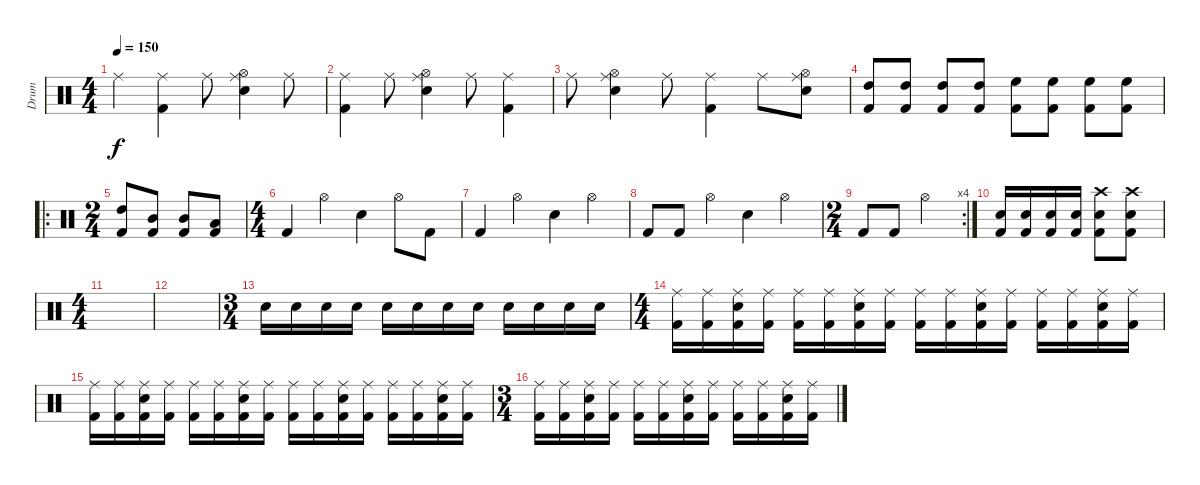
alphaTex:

\track ("Drum" "Drum") {instrument percussion}
\staff {score}
\articulation defaults
\ts (4 4)
\tempo 150
\clef neutral
\ks c "Ride (middle)".4{dy f}
("Kick (hit) 2" "Ride (middle)").4 "Ride (middle)".8 ("Hi-Hat (open)" "Electric Snare (hit)" "Ride (middle)").4 "Ride (middle)".8 |
("Kick (hit) 2" "Ride (middle)").4 "Ride (middle)".8 ("Hi-Hat (open)" "Electric Snare (hit)" "Ride (middle)").4 "Ride (middle)".8 ("Kick (hit) 2" "Ride (middle)").4 |
"Ride (middle)".8 ("Hi-Hat (open)" "Electric Snare (hit)" "Ride (middle)").4 "Ride (middle)".8 ("Kick (hit) 2" "Ride (middle)").4 "Ride (middle)".8 ("Hi-Hat (open)" "Electric Snare (hit)" "Ride (middle)").8 |
("Kick (hit) 2" "High Tom (hit)").8 ("Kick (hit) 2" "High Tom (hit)").8 ("Kick (hit) 2" "High Tom (hit)").8 ("Kick (hit) 2" "High Tom (hit)").8 ("Kick (hit) 2" "High Floor Tom (hit)").8 ("Kick (hit) 2" "High Floor Tom (hit)").8 ("Kick (hit) 2" "High Floor Tom (hit)").8 ("Kick (hit) 2" "High Floor Tom (hit)").8 |
\ro
\ts (2 4)
("Kick (hit) 2" "High Tom (hit)").8 ("Kick (hit) 2" "Mid Tom (hit)").8 ("Kick (hit) 2" "Mid Tom (hit)").8 ("Kick (hit) 2" "Low Tom (hit)").8 |
\ts (4 4)
"Kick (hit) 2".4 "Hi-Hat (open)".4 "Electric Snare (hit)".4 "Hi-Hat (open)".8 "Kick (hit) 2".8 |
"Kick (hit) 2".4 "Hi-Hat (open)".4 "Electric Snare (hit)".4 "Hi-Hat (open)".4 |
"Kick (hit) 2".8 "Kick (hit) 2".8 "Hi-Hat (open)".4 "Electric Snare (hit)".4 "Hi-Hat (open)".4 |
\rc 4
\ts (2 4)
"Kick (hit) 2".8 "Kick (hit) 2".8 "Hi-Hat (open)".4 |
("Kick (hit) 2" "Electric Snare (hit)").16 ("Kick (hit) 2" "Electric Snare (hit)").16 ("Kick (hit) 2" "Electric Snare (hit)").16 ("Kick (hit) 2" "Electric Snare (hit)").16 ("Kick (hit) 2" "Crash high (hit)" "Electric Snare (hit)").8 ("Kick (hit) 2" "Crash high (hit)" "Electric Snare (hit)").8 |
\ts (4 4)
|
|
\ts (3 4)
"Electric Snare (hit)".16 "Electric Snare (hit)".16 "Electric Snare (hit)".16 "Electric Snare (hit)".16 "Electric Snare (hit)".16 "Electric Snare (hit)".16 "Electric Snare (hit)".16 "Electric Snare (hit)".16 "Electric Snare (hit)".16 "Electric Snare (hit)".16 "Electric Snare (hit)".16 "Electric Snare (hit)".16 |
\ts (4 4)
("Kick (hit) 2" "Ride (middle)").16 ("Kick (hit) 2" "Ride (middle)").16 ("Kick (hit) 2" "Ride (middle)" "Electric Snare (hit)").16 ("Kick (hit) 2" "Ride (middle)").16 ("Kick (hit) 2" "Ride (middle)").16 ("Kick (hit) 2" "Ride (middle)").16 ("Kick (hit) 2" "Ride (middle)" "Electric Snare (hit)").16 ("Kick (hit) 2" "Ride (middle)").16 ("Kick (hit) 2" "Ride (middle)").16 ("Kick (hit) 2" "Ride (middle)").16 ("Kick (hit) 2" "Ride (middle)" "Electric Snare (hit)").16 ("Kick (hit) 2" "Ride (middle)").16 ("Kick (hit) 2" "Ride (middle)").16 ("Kick (hit) 2" "Ride (middle)").16 ("Kick (hit) 2" "Ride (middle)" "Electric Snare (hit)").16 ("Kick (hit) 2" "Ride (middle)").16 |
("Kick (hit) 2" "Ride (middle)").16 ("Kick (hit) 2" "Ride (middle)").16 ("Kick (hit) 2" "Ride (middle)" "Electric Snare (hit)").16 ("Kick (hit) 2" "Ride (middle)").16 ("Kick (hit) 2" "Ride (middle)").16 ("Kick (hit) 2" "Ride (middle)").16 ("Kick (hit) 2" "Ride (middle)" "Electric Snare (hit)").16 ("Kick (hit) 2" "Ride (middle)").16 ("Kick (hit) 2" "Ride (middle)").16 ("Kick (hit) 2" "Ride (middle)").16 ("Kick (hit) 2" "Ride (middle)" "Electric Snare (hit)").16 ("Kick (hit) 2" "Ride (middle)").16 ("Kick (hit) 2" "Ride (middle)").16 ("Kick (hit) 2" "Ride (middle)").16 ("Kick (hit) 2" "Ride (middle)" "Electric Snare (hit)").16 ("Kick (hit) 2" "Ride (middle)").16 |
\ts (3 4)
("Kick (hit) 2" "Ride (middle)").16 ("Kick (hit) 2" "Ride (middle)").16 ("Kick (hit) 2" "Ride (middle)" "Electric Snare (hit)").16 ("Kick (hit) 2" "Ride (middle)").16 ("Kick (hit) 2" "Ride (middle)").16 ("Kick (hit) 2" "Ride (middle)").16 ("Kick (hit) 2" "Ride (middle)" "Electric Snare (hit)").16 ("Kick (hit) 2" "Ride (middle)").16 ("Kick (hit) 2" "Ride (middle)").16 ("Kick (hit) 2" "Ride (middle)").16 ("Kick (hit) 2" "Ride (middle)" "Electric Snare (hit)").16 ("Kick (hit) 2" "Ride (middle)").16
